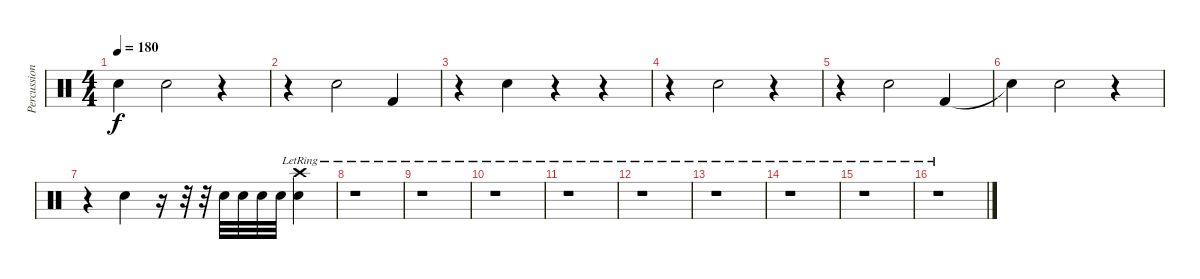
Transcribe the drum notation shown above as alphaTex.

\track ("Percussion" "Percussion") {instrument percussion}
\staff {score}
\articulation defaults
\ts (4 4)
\tempo 180
\clef neutral
\ks c "Snare (hit)"{t}.4{dy f} "Electric Snare (hit)".2
r.4 |
r.4 "Electric Snare (hit)".2 "Kick (hit) 2".4 |
r.4 "Electric Snare (hit)".4 r.4 r.4 |
r.4 "Electric Snare (hit)".2 r.4 |
r.4 "Electric Snare (hit)".2 "Kick (hit) 2".4 |
"Snare (hit)"{t}.4 "Electric Snare (hit)".2 r.4 |
r.4 "Electric Snare (hit)".4 r.16 r.32 r.32 "Electric Snare (hit)".32 "Electric Snare (hit)".32 "Electric Snare (hit)".32 "Electric Snare (hit)".32 ("Electric Snare (hit)" "Crash high (hit)"{lr}).4 |
r.1 |
r.1 |
r.1 |
r.1 |
r.1 |
r.1 |
r.1 |
r.1 |
r.1
